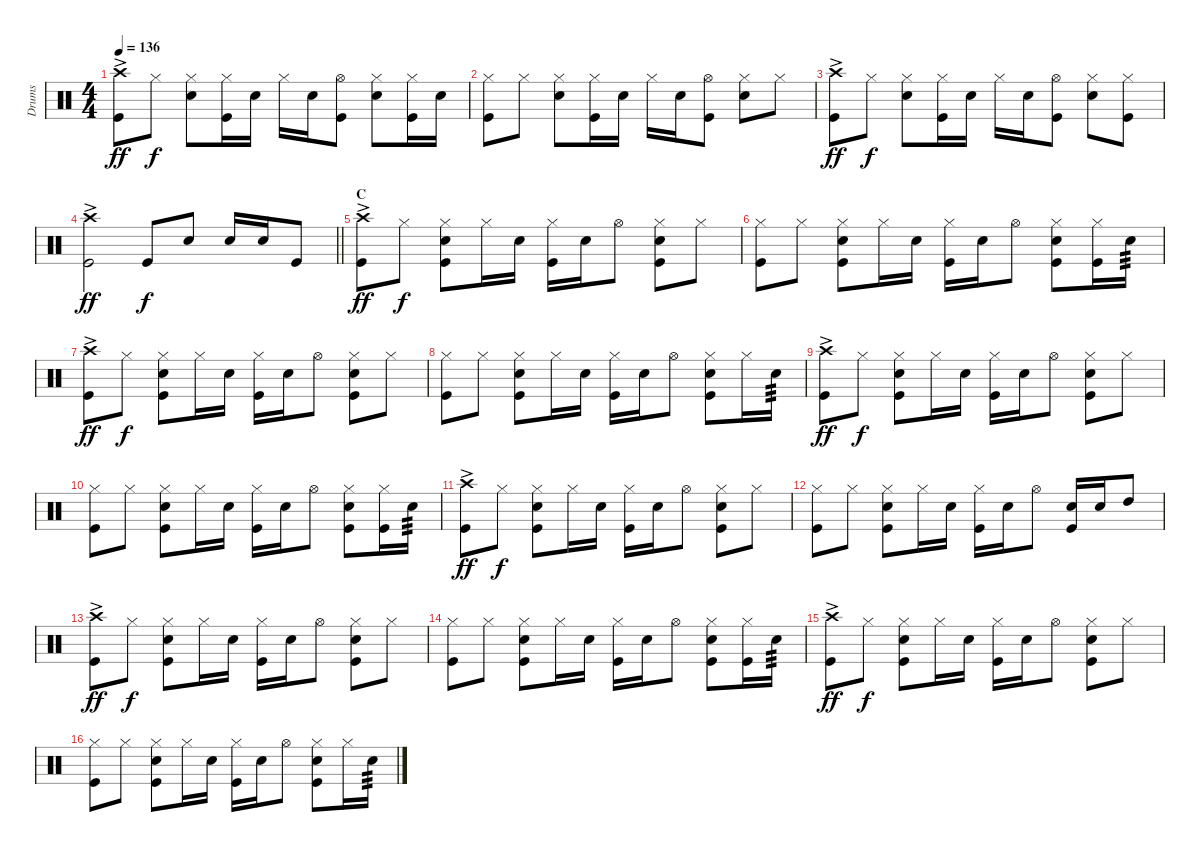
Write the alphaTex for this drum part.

\track ("Drums" "Drums") {instrument percussion}
\staff {score}
\articulation defaults
\ts (4 4)
\tempo 136
\clef neutral
\ks c
("Crash high (hit)"{ac} "Kick (hit)").8{dy ff} "Hi-Hat (closed)".8{dy f} ("Hi-Hat (closed)" "Snare (hit) 2").8 ("Hi-Hat (closed)" "Kick (hit)").16 "Snare (hit) 2".16 "Hi-Hat (closed)".16 "Snare (hit) 2".16 ("Hi-Hat (open)" "Kick (hit)").8 ("Hi-Hat (closed)" "Snare (hit) 2").8 ("Hi-Hat (closed)" "Kick (hit)").16 "Snare (hit) 2".16 |
("Hi-Hat (closed)" "Kick (hit)").8 "Hi-Hat (closed)".8 ("Hi-Hat (closed)" "Snare (hit) 2").8 ("Hi-Hat (closed)" "Kick (hit)").16 "Snare (hit) 2".16 "Hi-Hat (closed)".16 "Snare (hit) 2".16 ("Hi-Hat (open)" "Kick (hit)").8 ("Hi-Hat (closed)" "Snare (hit) 2").8 "Hi-Hat (closed)".8 |
("Crash high (hit)"{ac} "Kick (hit)").8{dy ff} "Hi-Hat (closed)".8{dy f} ("Hi-Hat (closed)" "Snare (hit) 2").8 ("Hi-Hat (closed)" "Kick (hit)").16 "Snare (hit) 2".16 "Hi-Hat (closed)".16 "Snare (hit) 2".16 ("Hi-Hat (open)" "Kick (hit)").8 ("Hi-Hat (closed)" "Snare (hit) 2").8 ("Hi-Hat (closed)" "Kick (hit)").8 |
\barLineRight lightlight
("Crash high (hit)"{ac} "Kick (hit)").2{dy ff} "Kick (hit)".8{dy f} "Snare (hit) 2".8 "Snare (hit) 2".16 "Snare (hit) 2".16 "Kick (hit)".8 |
\section ("" "C")
("Crash high (hit)"{ac} "Kick (hit)").8{dy ff} "Hi-Hat (closed)".8{dy f} ("Hi-Hat (closed)" "Snare (hit) 2" "Kick (hit)").8 "Hi-Hat (closed)".16 "Snare (hit) 2".16 ("Hi-Hat (closed)" "Kick (hit)").16 "Snare (hit) 2".16 "Hi-Hat (open)".8 ("Hi-Hat (closed)" "Snare (hit) 2" "Kick (hit)").8 "Hi-Hat (closed)".8 |
("Hi-Hat (closed)" "Kick (hit)").8 "Hi-Hat (closed)".8 ("Hi-Hat (closed)" "Snare (hit) 2" "Kick (hit)").8 "Hi-Hat (closed)".16 "Snare (hit) 2".16 ("Hi-Hat (closed)" "Kick (hit)").16 "Snare (hit) 2".16 "Hi-Hat (open)".8 ("Hi-Hat (closed)" "Snare (hit) 2" "Kick (hit)").8 ("Hi-Hat (closed)" "Kick (hit)").16 "Snare (hit) 2".16{tp 3} |
("Crash high (hit)"{ac} "Kick (hit)").8{dy ff} "Hi-Hat (closed)".8{dy f} ("Hi-Hat (closed)" "Snare (hit) 2" "Kick (hit)").8 "Hi-Hat (closed)".16 "Snare (hit) 2".16 ("Hi-Hat (closed)" "Kick (hit)").16 "Snare (hit) 2".16 "Hi-Hat (open)".8 ("Hi-Hat (closed)" "Snare (hit) 2" "Kick (hit)").8 "Hi-Hat (closed)".8 |
("Hi-Hat (closed)" "Kick (hit)").8 "Hi-Hat (closed)".8 ("Hi-Hat (closed)" "Snare (hit) 2" "Kick (hit)").8 "Hi-Hat (closed)".16 "Snare (hit) 2".16 ("Hi-Hat (closed)" "Kick (hit)").16 "Snare (hit) 2".16 "Hi-Hat (open)".8 ("Hi-Hat (closed)" "Snare (hit) 2" "Kick (hit)").8 "Hi-Hat (closed)".16 "Snare (hit) 2".16{tp 3} |
("Crash high (hit)"{ac} "Kick (hit)").8{dy ff} "Hi-Hat (closed)".8{dy f} ("Hi-Hat (closed)" "Snare (hit) 2" "Kick (hit)").8 "Hi-Hat (closed)".16 "Snare (hit) 2".16 ("Hi-Hat (closed)" "Kick (hit)").16 "Snare (hit) 2".16 "Hi-Hat (open)".8 ("Hi-Hat (closed)" "Snare (hit) 2" "Kick (hit)").8 "Hi-Hat (closed)".8 |
("Hi-Hat (closed)" "Kick (hit)").8 "Hi-Hat (closed)".8 ("Hi-Hat (closed)" "Snare (hit) 2" "Kick (hit)").8 "Hi-Hat (closed)".16 "Snare (hit) 2".16 ("Hi-Hat (closed)" "Kick (hit)").16 "Snare (hit) 2".16 "Hi-Hat (open)".8 ("Hi-Hat (closed)" "Snare (hit) 2" "Kick (hit)").8 ("Hi-Hat (closed)" "Kick (hit)").16 "Snare (hit) 2".16{tp 3} |
("Crash high (hit)"{ac} "Kick (hit)").8{dy ff} "Hi-Hat (closed)".8{dy f} ("Hi-Hat (closed)" "Snare (hit) 2" "Kick (hit)").8 "Hi-Hat (closed)".16 "Snare (hit) 2".16 ("Hi-Hat (closed)" "Kick (hit)").16 "Snare (hit) 2".16 "Hi-Hat (open)".8 ("Hi-Hat (closed)" "Snare (hit) 2" "Kick (hit)").8 "Hi-Hat (closed)".8 |
("Hi-Hat (closed)" "Kick (hit)").8 "Hi-Hat (closed)".8 ("Hi-Hat (closed)" "Snare (hit) 2" "Kick (hit)").8 "Hi-Hat (closed)".16 "Snare (hit) 2".16 ("Hi-Hat (closed)" "Kick (hit)").16 "Snare (hit) 2".16 "Hi-Hat (open)".8 ("Kick (hit)" "Snare (hit) 2").16 "Snare (hit) 2".16 "High Tom (hit)".8 |
("Crash high (hit)"{ac} "Kick (hit)").8{dy ff} "Hi-Hat (closed)".8{dy f} ("Hi-Hat (closed)" "Snare (hit) 2" "Kick (hit)").8 "Hi-Hat (closed)".16 "Snare (hit) 2".16 ("Hi-Hat (closed)" "Kick (hit)").16 "Snare (hit) 2".16 "Hi-Hat (open)".8 ("Hi-Hat (closed)" "Snare (hit) 2" "Kick (hit)").8 "Hi-Hat (closed)".8 |
("Hi-Hat (closed)" "Kick (hit)").8 "Hi-Hat (closed)".8 ("Hi-Hat (closed)" "Snare (hit) 2" "Kick (hit)").8 "Hi-Hat (closed)".16 "Snare (hit) 2".16 ("Hi-Hat (closed)" "Kick (hit)").16 "Snare (hit) 2".16 "Hi-Hat (open)".8 ("Hi-Hat (closed)" "Snare (hit) 2" "Kick (hit)").8 ("Hi-Hat (closed)" "Kick (hit)").16 "Snare (hit) 2".16{tp 3} |
("Crash high (hit)"{ac} "Kick (hit)").8{dy ff} "Hi-Hat (closed)".8{dy f} ("Hi-Hat (closed)" "Snare (hit) 2" "Kick (hit)").8 "Hi-Hat (closed)".16 "Snare (hit) 2".16 ("Hi-Hat (closed)" "Kick (hit)").16 "Snare (hit) 2".16 "Hi-Hat (open)".8 ("Hi-Hat (closed)" "Snare (hit) 2" "Kick (hit)").8 "Hi-Hat (closed)".8 |
("Hi-Hat (closed)" "Kick (hit)").8 "Hi-Hat (closed)".8 ("Hi-Hat (closed)" "Snare (hit) 2" "Kick (hit)").8 "Hi-Hat (closed)".16 "Snare (hit) 2".16 ("Hi-Hat (closed)" "Kick (hit)").16 "Snare (hit) 2".16 "Hi-Hat (open)".8 ("Hi-Hat (closed)" "Snare (hit) 2" "Kick (hit)").8 "Hi-Hat (closed)".16 "Snare (hit) 2".16{tp 3}
